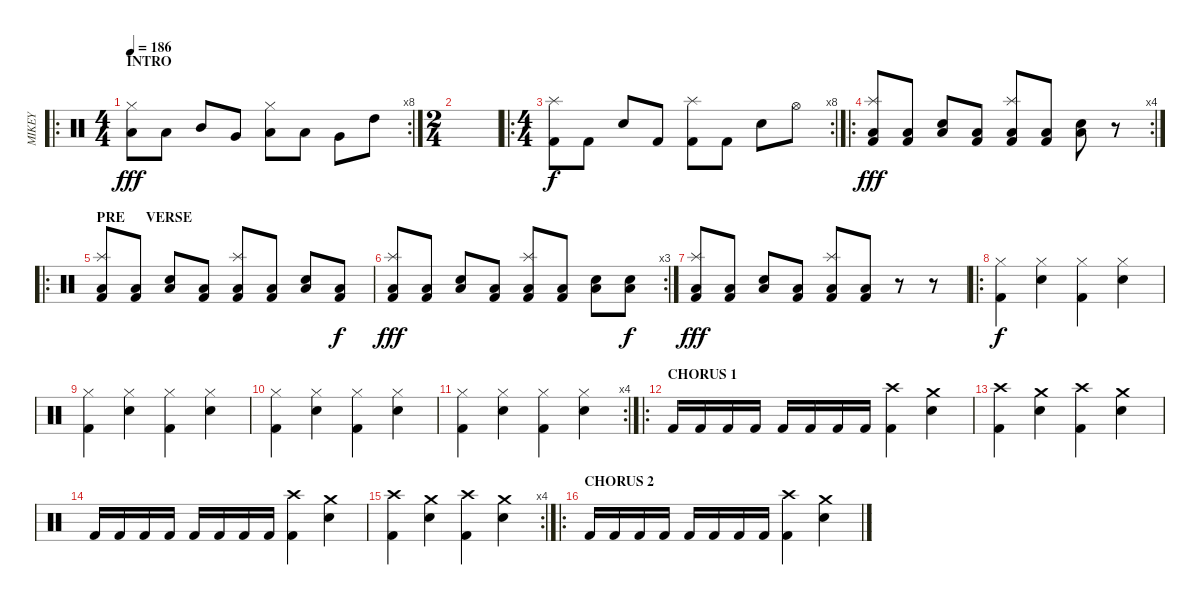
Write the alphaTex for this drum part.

\track ("MIKEY" "MIKEY") {instrument percussion}
\staff {score}
\articulation defaults
\ro
\rc 8
\ts (4 4)
\section ("" "INTRO")
\tempo 186
\clef neutral
\ks c
("Low Floor Tom (hit)" "Hi-Hat (closed)").8{dy fff} "Low Floor Tom (hit)".8 "Mid Tom (hit)".8 "Very Low Tom (hit)".8 ("Low Floor Tom (hit)" "Hi-Hat (closed)").8 "Low Floor Tom (hit)".8 "Very Low Tom (hit)".8 "High Tom (hit)".8 |
\ts (2 4)
|
\ro
\rc 8
\ts (4 4)
("Splash (hit)" "Kick (hit) 2").8{dy f} "Kick (hit) 2".8 "Snare (hit) 2".8 "Kick (hit) 2".8 ("Splash (hit)" "Kick (hit) 2").8 "Kick (hit) 2".8 "Snare (hit) 2".8 "Hi-Hat (open)".8 |
\ro
\rc 4
("Low Floor Tom (hit)" "Splash (hit)" "Kick (hit) 2").8{dy fff} ("Low Floor Tom (hit)" "Kick (hit) 2").8 ("Low Floor Tom (hit)" "Snare (hit) 2").8 ("Low Floor Tom (hit)" "Kick (hit) 2").8 ("Low Floor Tom (hit)" "Splash (hit)" "Kick (hit) 2").8 ("Low Floor Tom (hit)" "Kick (hit) 2").8 ("Low Floor Tom (hit)" "Snare (hit) 2").8 r.8 |
\ro
\section ("" "PRE      VERSE")
("Low Floor Tom (hit)" "Splash (hit)" "Kick (hit) 2").8 ("Low Floor Tom (hit)" "Kick (hit) 2").8 ("Low Floor Tom (hit)" "Snare (hit) 2").8 ("Low Floor Tom (hit)" "Kick (hit) 2").8 ("Low Floor Tom (hit)" "Splash (hit)" "Kick (hit) 2").8 ("Low Floor Tom (hit)" "Kick (hit) 2").8 ("Low Floor Tom (hit)" "Snare (hit) 2").8 ("Low Floor Tom (hit)" "Kick (hit) 2").8{dy f} |
\rc 3
("Low Floor Tom (hit)" "Splash (hit)" "Kick (hit) 2").8{dy fff} ("Low Floor Tom (hit)" "Kick (hit) 2").8 ("Low Floor Tom (hit)" "Snare (hit) 2").8 ("Low Floor Tom (hit)" "Kick (hit) 2").8 ("Low Floor Tom (hit)" "Splash (hit)" "Kick (hit) 2").8 ("Low Floor Tom (hit)" "Kick (hit) 2").8 ("Low Floor Tom (hit)" "Snare (hit) 2").8 ("Low Floor Tom (hit)" "Snare (hit) 2").8{dy f} |
("Low Floor Tom (hit)" "Splash (hit)" "Kick (hit) 2").8{dy fff} ("Low Floor Tom (hit)" "Kick (hit) 2").8 ("Low Floor Tom (hit)" "Snare (hit) 2").8 ("Low Floor Tom (hit)" "Kick (hit) 2").8 ("Low Floor Tom (hit)" "Splash (hit)" "Kick (hit) 2").8 ("Low Floor Tom (hit)" "Kick (hit) 2").8 r.8 r.8 |
\ro
("Hi-Hat (closed)" "Kick (hit) 2").4{dy f} ("Hi-Hat (closed)" "Snare (hit) 2").4 ("Hi-Hat (closed)" "Kick (hit) 2").4 ("Hi-Hat (closed)" "Snare (hit) 2").4 |
("Hi-Hat (closed)" "Kick (hit) 2").4 ("Hi-Hat (closed)" "Snare (hit) 2").4 ("Hi-Hat (closed)" "Kick (hit) 2").4 ("Hi-Hat (closed)" "Snare (hit) 2").4 |
("Hi-Hat (closed)" "Kick (hit) 2").4 ("Hi-Hat (closed)" "Snare (hit) 2").4 ("Hi-Hat (closed)" "Kick (hit) 2").4 ("Hi-Hat (closed)" "Snare (hit) 2").4 |
\rc 4
("Hi-Hat (closed)" "Kick (hit) 2").4 ("Hi-Hat (closed)" "Snare (hit) 2").4 ("Hi-Hat (closed)" "Kick (hit) 2").4 ("Hi-Hat (closed)" "Snare (hit) 2").4 |
\ro
\section ("" "CHORUS 1")
"Kick (hit) 2".16 "Kick (hit) 2".16 "Kick (hit) 2".16 "Kick (hit) 2".16 "Kick (hit) 2".16 "Kick (hit) 2".16 "Kick (hit) 2".16 "Kick (hit) 2".16 ("Crash high (hit)" "Kick (hit) 2").4 ("Crash medium (hit)" "Snare (hit) 2").4 |
("Crash high (hit)" "Kick (hit) 2").4 ("Crash medium (hit)" "Snare (hit) 2").4 ("Crash high (hit)" "Kick (hit) 2").4 ("Crash medium (hit)" "Snare (hit) 2").4 |
"Kick (hit) 2".16 "Kick (hit) 2".16 "Kick (hit) 2".16 "Kick (hit) 2".16 "Kick (hit) 2".16 "Kick (hit) 2".16 "Kick (hit) 2".16 "Kick (hit) 2".16 ("Crash high (hit)" "Kick (hit) 2").4 ("Crash medium (hit)" "Snare (hit) 2").4 |
\rc 4
("Crash high (hit)" "Kick (hit) 2").4 ("Crash medium (hit)" "Snare (hit) 2").4 ("Crash high (hit)" "Kick (hit) 2").4 ("Crash medium (hit)" "Snare (hit) 2").4 |
\ro
\section ("" "CHORUS 2")
"Kick (hit) 2".16 "Kick (hit) 2".16 "Kick (hit) 2".16 "Kick (hit) 2".16 "Kick (hit) 2".16 "Kick (hit) 2".16 "Kick (hit) 2".16 "Kick (hit) 2".16 ("Crash high (hit)" "Kick (hit) 2").4 ("Crash medium (hit)" "Snare (hit) 2").4
